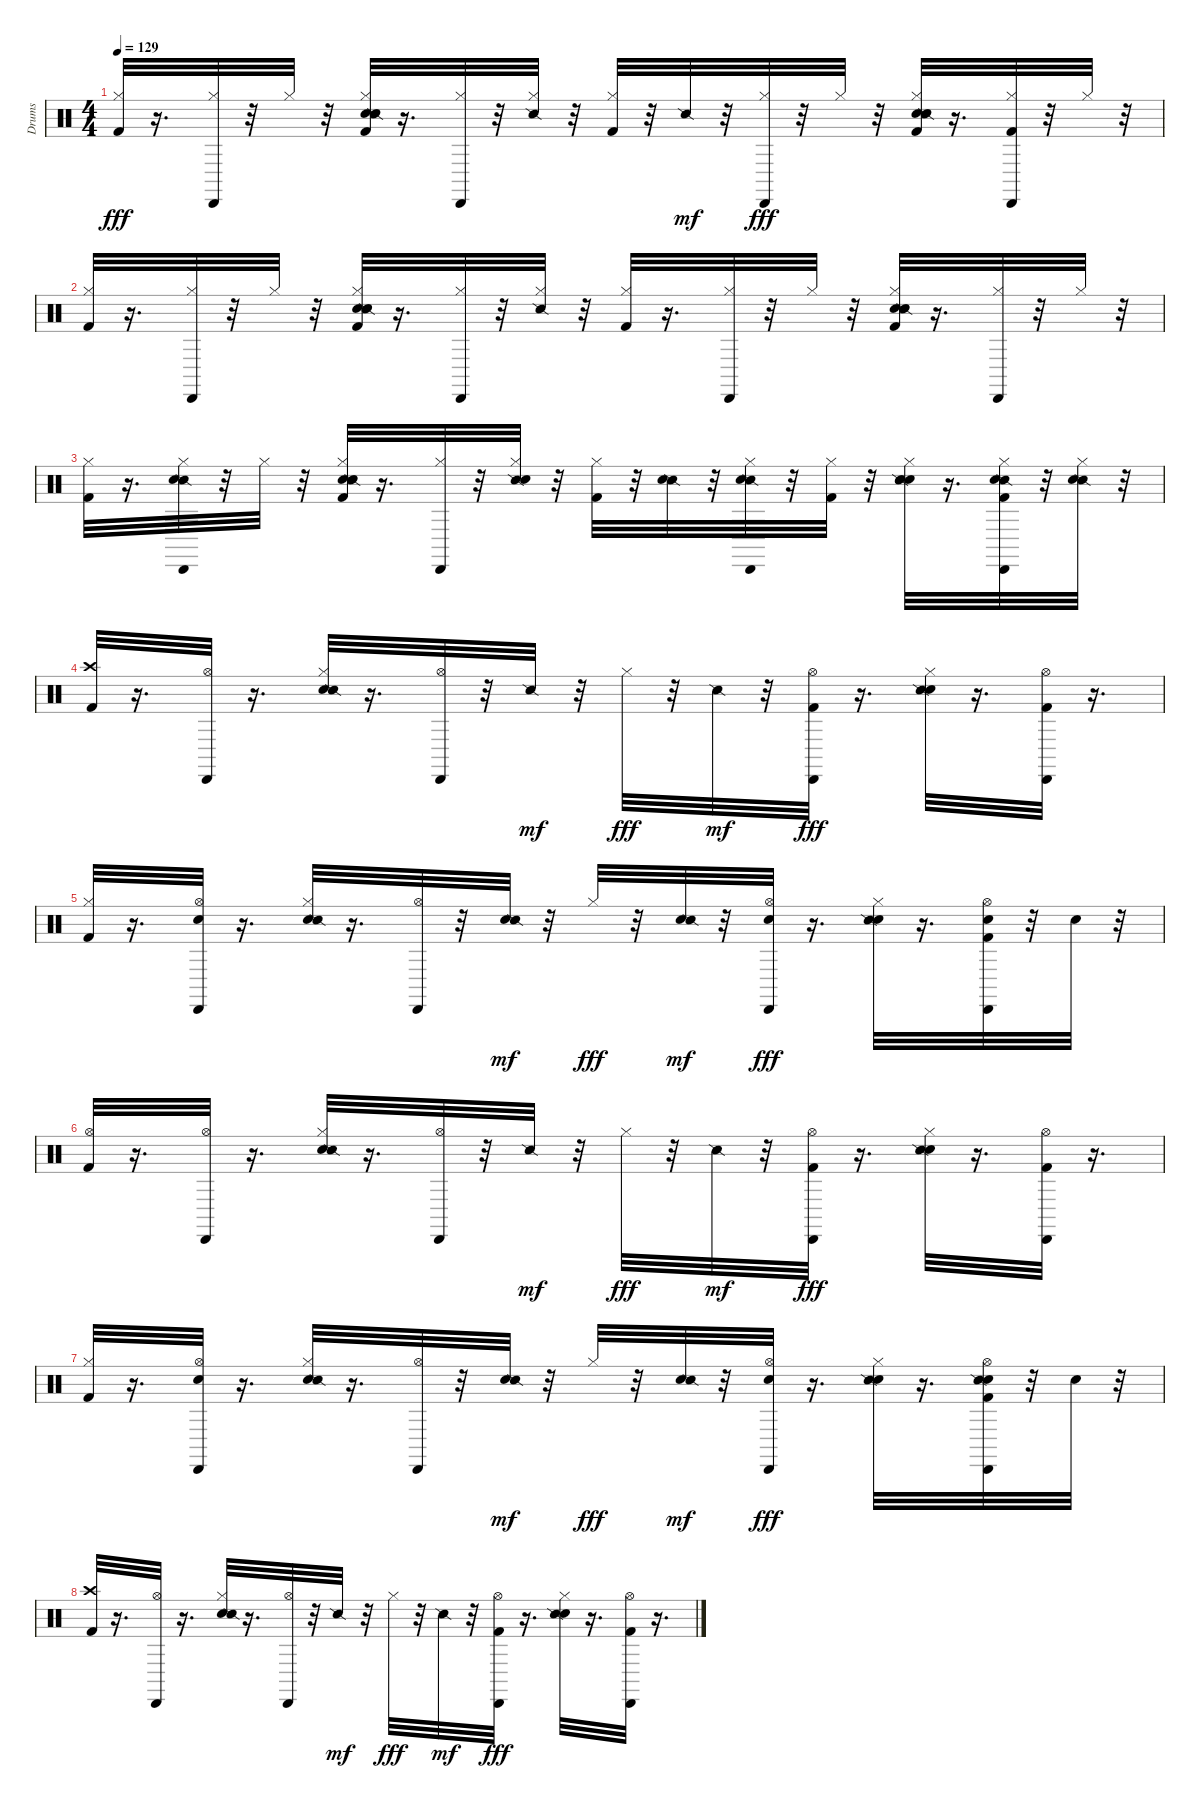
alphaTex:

\track ("Drums" "Drums") {instrument percussion}
\staff {score}
\articulation defaults
\ts (4 4)
\tempo 129
\clef neutral
\ks c
("Kick (hit) 2" "Hi-Hat (closed)").32{dy fff} r.16{d} ("Cabasa (hit)" "Hi-Hat (closed)").32 r.32 "Hi-Hat (closed)".32 r.32 ("Snare (hit)" "Hand Clap (hit)" "Snare (side stick) 2" "Hi-Hat (closed)" "Kick (hit) 2").32 r.16{d} ("Cabasa (hit)" "Hi-Hat (closed)").32 r.32 ("Snare (side stick) 2" "Hi-Hat (closed)").32 r.32 ("Kick (hit) 2" "Hi-Hat (closed)").32 r.32 "Snare (side stick) 2".32{dy mf} r.32 ("Cabasa (hit)" "Hi-Hat (closed)").32{dy fff} r.32 "Hi-Hat (closed)".32 r.32 ("Snare (hit)" "Hand Clap (hit)" "Snare (side stick) 2" "Hi-Hat (closed)" "Kick (hit) 2").32 r.16{d} ("Kick (hit) 2" "Cabasa (hit)" "Hi-Hat (closed)").32 r.32 "Hi-Hat (closed)".32 r.32 |
("Kick (hit) 2" "Hi-Hat (closed)").32 r.16{d} ("Cabasa (hit)" "Hi-Hat (closed)").32 r.32 "Hi-Hat (closed)".32 r.32 ("Snare (hit)" "Snare (side stick) 2" "Hi-Hat (closed)" "Kick (hit) 2" "Hand Clap (hit)").32 r.16{d} ("Cabasa (hit)" "Hi-Hat (closed)").32 r.32 ("Snare (side stick) 2" "Hi-Hat (closed)").32 r.32 ("Kick (hit) 2" "Hi-Hat (closed)").32 r.16{d} ("Cabasa (hit)" "Hi-Hat (closed)").32 r.32 "Hi-Hat (closed)".32 r.32 ("Snare (hit)" "Snare (side stick) 2" "Hi-Hat (closed)" "Kick (hit) 2" "Hand Clap (hit)").32 r.16{d} ("Cabasa (hit)" "Hi-Hat (closed)").32 r.32 "Hi-Hat (closed)".32 r.32 |
("Kick (hit) 2" "Hi-Hat (closed)").32 r.16{d} ("Snare (side stick) 2" "Cabasa (hit)" "Hi-Hat (closed)" "Hand Clap (hit)").32 r.32 "Hi-Hat (closed)".32 r.32 ("Snare (hit)" "Snare (side stick) 2" "Hi-Hat (closed)" "Kick (hit) 2" "Hand Clap (hit)").32 r.16{d} ("Cabasa (hit)" "Hi-Hat (closed)").32 r.32 ("Snare (side stick) 2" "Hi-Hat (closed)" "Hand Clap (hit)").32 r.32 ("Kick (hit) 2" "Hi-Hat (closed)").32 r.32 ("Snare (side stick) 2" "Hand Clap (hit)").32 r.32 ("Snare (side stick) 2" "Cabasa (hit)" "Hi-Hat (closed)" "Hand Clap (hit)").32 r.32 ("Hi-Hat (closed)" "Kick (hit) 2").32 r.32 ("Snare (hit)" "Snare (side stick) 2" "Hi-Hat (closed)" "Hand Clap (hit)").32 r.16{d} ("Snare (side stick) 2" "Kick (hit) 2" "Cabasa (hit)" "Hi-Hat (closed)" "Hand Clap (hit)").32 r.32 ("Snare (side stick) 2" "Hi-Hat (closed)" "Hand Clap (hit)").32 r.32 |
("Crash high (hit)" "Kick (hit) 2").32 r.16{d} ("Hi-Hat (open)" "Cabasa (hit)").32 r.16{d} ("Hi-Hat (closed)" "Hand Clap (hit)" "Snare (side stick) 2").32 r.16{d} ("Hi-Hat (open)" "Cabasa (hit)").32 r.32 "Snare (side stick) 2".32{dy mf} r.32 "Hi-Hat (closed)".32{dy fff} r.32 "Snare (side stick) 2".32{dy mf} r.32 ("Hi-Hat (open)" "Cabasa (hit)" "Kick (hit) 2").32{dy fff} r.16{d} ("Hi-Hat (closed)" "Hand Clap (hit)" "Snare (side stick) 2").32 r.16{d} ("Hi-Hat (open)" "Cabasa (hit)" "Kick (hit) 2").32 r.16{d} |
("Hi-Hat (closed)" "Kick (hit) 2").32 r.16{d} ("Hi-Hat (open)" "Cabasa (hit)" "Hand Clap (hit)").32 r.16{d} ("Hi-Hat (closed)" "Hand Clap (hit)" "Snare (side stick) 2").32 r.16{d} ("Hi-Hat (open)" "Cabasa (hit)").32 r.32 ("Hand Clap (hit)" "Snare (side stick) 2").32{dy mf} r.32 "Hi-Hat (closed)".32{dy fff} r.32 ("Hand Clap (hit)" "Snare (side stick) 2").32{dy mf} r.32 ("Hi-Hat (open)" "Cabasa (hit)" "Hand Clap (hit)").32{dy fff} r.16{d} ("Hi-Hat (closed)" "Hand Clap (hit)" "Snare (side stick) 2").32 r.16{d} ("Hi-Hat (open)" "Cabasa (hit)" "Kick (hit) 2" "Hand Clap (hit)").32 r.32 "Hand Clap (hit)".32 r.32 |
("Hi-Hat (open)" "Kick (hit) 2").32 r.16{d} ("Hi-Hat (open)" "Cabasa (hit)").32 r.16{d} ("Hand Clap (hit)" "Hi-Hat (closed)" "Snare (side stick) 2").32 r.16{d} ("Hi-Hat (open)" "Cabasa (hit)").32 r.32 "Snare (side stick) 2".32{dy mf} r.32 "Hi-Hat (closed)".32{dy fff} r.32 "Snare (side stick) 2".32{dy mf} r.32 ("Hi-Hat (open)" "Cabasa (hit)" "Kick (hit) 2").32{dy fff} r.16{d} ("Hand Clap (hit)" "Hi-Hat (closed)" "Snare (side stick) 2").32 r.16{d} ("Hi-Hat (open)" "Cabasa (hit)" "Kick (hit) 2").32 r.16{d} |
("Kick (hit) 2" "Hi-Hat (closed)").32 r.16{d} ("Hi-Hat (open)" "Cabasa (hit)" "Hand Clap (hit)").32 r.16{d} ("Hand Clap (hit)" "Hi-Hat (closed)" "Snare (side stick) 2").32 r.16{d} ("Hi-Hat (open)" "Cabasa (hit)").32 r.32 ("Hand Clap (hit)" "Snare (side stick) 2").32{dy mf} r.32 "Hi-Hat (closed)".32{dy fff} r.32 ("Hand Clap (hit)" "Snare (side stick) 2").32{dy mf} r.32 ("Hi-Hat (open)" "Cabasa (hit)" "Hand Clap (hit)").32{dy fff} r.16{d} ("Hand Clap (hit)" "Hi-Hat (closed)" "Snare (side stick) 2").32 r.16{d} ("Hi-Hat (open)" "Cabasa (hit)" "Kick (hit) 2" "Hand Clap (hit)" "Snare (side stick) 2").32 r.32 "Hand Clap (hit)".32 r.32 |
("Crash high (hit)" "Kick (hit) 2").32 r.16{d} ("Hi-Hat (open)" "Cabasa (hit)").32 r.16{d} ("Hi-Hat (closed)" "Hand Clap (hit)" "Snare (side stick) 2").32 r.16{d} ("Hi-Hat (open)" "Cabasa (hit)").32 r.32 "Snare (side stick) 2".32{dy mf} r.32 "Hi-Hat (closed)".32{dy fff} r.32 "Snare (side stick) 2".32{dy mf} r.32 ("Hi-Hat (open)" "Cabasa (hit)" "Kick (hit) 2").32{dy fff} r.16{d} ("Hi-Hat (closed)" "Hand Clap (hit)" "Snare (side stick) 2").32 r.16{d} ("Hi-Hat (open)" "Cabasa (hit)" "Kick (hit) 2").32 r.16{d}
